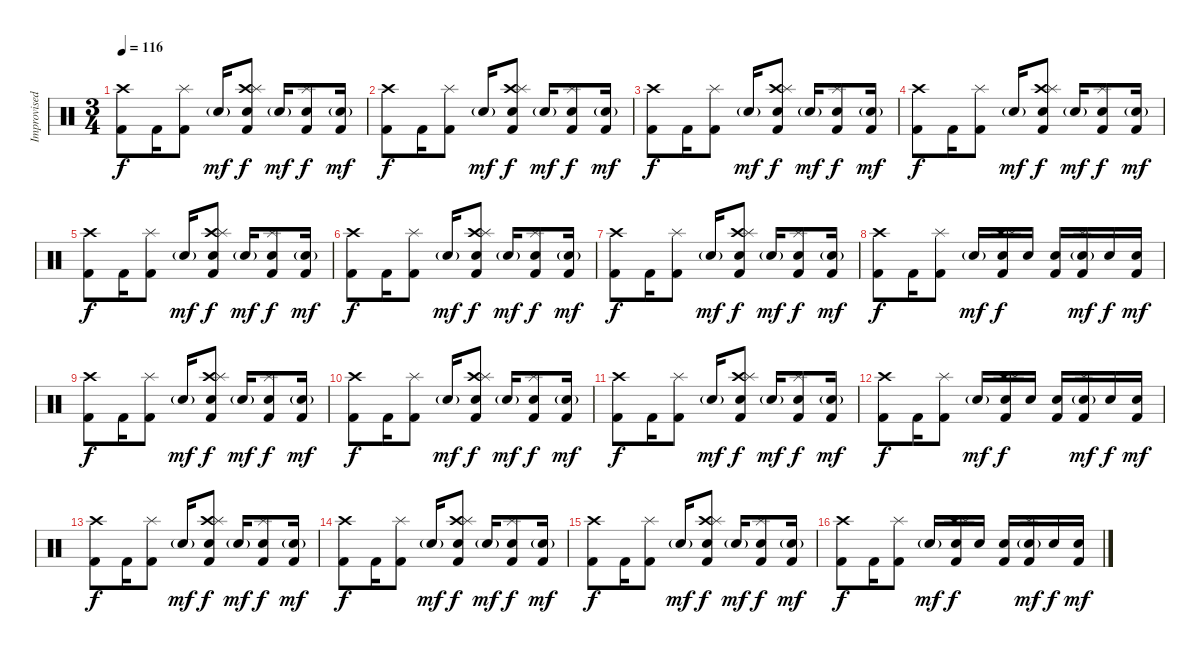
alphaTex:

\track ("Improvised Drums" "Improvised") {instrument percussion}
\staff {score}
\articulation defaults
\ts (3 4)
\tempo 116
\clef neutral
\ks c
("Kick (hit) 2" "Crash high (hit)").8{dy f} "Kick (hit) 2".16 ("Kick (hit) 2" "Splash (hit)").8 "Snare (hit) 2"{g}.16{dy mf} ("Kick (hit) 2" "Snare (hit) 2" "Crash high (hit)" "Splash (hit)").8{dy f} "Snare (hit) 2"{g}.16{dy mf} ("Kick (hit) 2" "Snare (hit) 2" "Splash (hit)").8{dy f} ("Kick (hit) 2" "Snare (hit) 2"{g}).16{dy mf} |
("Kick (hit) 2" "Crash high (hit)").8{dy f} "Kick (hit) 2".16 ("Kick (hit) 2" "Splash (hit)").8 "Snare (hit) 2"{g}.16{dy mf} ("Kick (hit) 2" "Snare (hit) 2" "Crash high (hit)" "Splash (hit)").8{dy f} "Snare (hit) 2"{g}.16{dy mf} ("Kick (hit) 2" "Snare (hit) 2" "Splash (hit)").8{dy f} ("Kick (hit) 2" "Snare (hit) 2"{g}).16{dy mf} |
("Kick (hit) 2" "Crash high (hit)").8{dy f} "Kick (hit) 2".16 ("Kick (hit) 2" "Splash (hit)").8 "Snare (hit) 2"{g}.16{dy mf} ("Kick (hit) 2" "Snare (hit) 2" "Crash high (hit)" "Splash (hit)").8{dy f} "Snare (hit) 2"{g}.16{dy mf} ("Kick (hit) 2" "Snare (hit) 2" "Splash (hit)").8{dy f} ("Kick (hit) 2" "Snare (hit) 2"{g}).16{dy mf} |
("Kick (hit) 2" "Crash high (hit)").8{dy f} "Kick (hit) 2".16 ("Kick (hit) 2" "Splash (hit)").8 "Snare (hit) 2"{g}.16{dy mf} ("Kick (hit) 2" "Snare (hit) 2" "Crash high (hit)" "Splash (hit)").8{dy f} "Snare (hit) 2"{g}.16{dy mf} ("Kick (hit) 2" "Snare (hit) 2" "Splash (hit)").8{dy f} ("Kick (hit) 2" "Snare (hit) 2"{g}).16{dy mf} |
("Kick (hit) 2" "Crash high (hit)").8{dy f} "Kick (hit) 2".16 ("Kick (hit) 2" "Splash (hit)").8 "Snare (hit) 2"{g}.16{dy mf} ("Kick (hit) 2" "Snare (hit) 2" "Crash high (hit)" "Splash (hit)").8{dy f} "Snare (hit) 2"{g}.16{dy mf} ("Kick (hit) 2" "Snare (hit) 2" "Splash (hit)").8{dy f} ("Kick (hit) 2" "Snare (hit) 2"{g}).16{dy mf} |
("Kick (hit) 2" "Crash high (hit)").8{dy f} "Kick (hit) 2".16 ("Kick (hit) 2" "Splash (hit)").8 "Snare (hit) 2"{g}.16{dy mf} ("Kick (hit) 2" "Snare (hit) 2" "Crash high (hit)" "Splash (hit)").8{dy f} "Snare (hit) 2"{g}.16{dy mf} ("Kick (hit) 2" "Snare (hit) 2" "Splash (hit)").8{dy f} ("Kick (hit) 2" "Snare (hit) 2"{g}).16{dy mf} |
("Kick (hit) 2" "Crash high (hit)").8{dy f} "Kick (hit) 2".16 ("Kick (hit) 2" "Splash (hit)").8 "Snare (hit) 2"{g}.16{dy mf} ("Kick (hit) 2" "Snare (hit) 2" "Crash high (hit)" "Splash (hit)").8{dy f} "Snare (hit) 2"{g}.16{dy mf} ("Kick (hit) 2" "Snare (hit) 2" "Splash (hit)").8{dy f} ("Kick (hit) 2" "Snare (hit) 2"{g}).16{dy mf} |
("Kick (hit) 2" "Crash high (hit)").8{dy f} "Kick (hit) 2".16 ("Kick (hit) 2" "Splash (hit)").8 "Snare (hit) 2"{g}.16{dy mf} ("Kick (hit) 2" "Snare (hit) 2" "Crash high (hit)" "Splash (hit)").16{dy f} "Snare (hit) 2".16 ("Kick (hit) 2" "Snare (hit) 2").16 ("Kick (hit) 2" "Snare (hit) 2"{g} "Splash (hit)").16{dy mf} "Snare (hit) 2".16{dy f} ("Kick (hit) 2" "Snare (hit) 2").16{dy mf} |
("Kick (hit) 2" "Crash high (hit)").8{dy f} "Kick (hit) 2".16 ("Kick (hit) 2" "Splash (hit)").8 "Snare (hit) 2"{g}.16{dy mf} ("Kick (hit) 2" "Snare (hit) 2" "Crash high (hit)" "Splash (hit)").8{dy f} "Snare (hit) 2"{g}.16{dy mf} ("Kick (hit) 2" "Snare (hit) 2" "Splash (hit)").8{dy f} ("Kick (hit) 2" "Snare (hit) 2"{g}).16{dy mf} |
("Kick (hit) 2" "Crash high (hit)").8{dy f} "Kick (hit) 2".16 ("Kick (hit) 2" "Splash (hit)").8 "Snare (hit) 2"{g}.16{dy mf} ("Kick (hit) 2" "Snare (hit) 2" "Crash high (hit)" "Splash (hit)").8{dy f} "Snare (hit) 2"{g}.16{dy mf} ("Kick (hit) 2" "Snare (hit) 2" "Splash (hit)").8{dy f} ("Kick (hit) 2" "Snare (hit) 2"{g}).16{dy mf} |
("Kick (hit) 2" "Crash high (hit)").8{dy f} "Kick (hit) 2".16 ("Kick (hit) 2" "Splash (hit)").8 "Snare (hit) 2"{g}.16{dy mf} ("Kick (hit) 2" "Snare (hit) 2" "Crash high (hit)" "Splash (hit)").8{dy f} "Snare (hit) 2"{g}.16{dy mf} ("Kick (hit) 2" "Snare (hit) 2" "Splash (hit)").8{dy f} ("Kick (hit) 2" "Snare (hit) 2"{g}).16{dy mf} |
("Kick (hit) 2" "Crash high (hit)").8{dy f} "Kick (hit) 2".16 ("Kick (hit) 2" "Splash (hit)").8 "Snare (hit) 2"{g}.16{dy mf} ("Kick (hit) 2" "Snare (hit) 2" "Crash high (hit)" "Splash (hit)").16{dy f} "Snare (hit) 2".16 ("Kick (hit) 2" "Snare (hit) 2").16 ("Kick (hit) 2" "Snare (hit) 2"{g} "Splash (hit)").16{dy mf} "Snare (hit) 2".16{dy f} ("Kick (hit) 2" "Snare (hit) 2").16{dy mf} |
("Kick (hit) 2" "Crash high (hit)").8{dy f} "Kick (hit) 2".16 ("Kick (hit) 2" "Splash (hit)").8 "Snare (hit) 2"{g}.16{dy mf} ("Kick (hit) 2" "Snare (hit) 2" "Crash high (hit)" "Splash (hit)").8{dy f} "Snare (hit) 2"{g}.16{dy mf} ("Kick (hit) 2" "Snare (hit) 2" "Splash (hit)").8{dy f} ("Kick (hit) 2" "Snare (hit) 2"{g}).16{dy mf} |
("Kick (hit) 2" "Crash high (hit)").8{dy f} "Kick (hit) 2".16 ("Kick (hit) 2" "Splash (hit)").8 "Snare (hit) 2"{g}.16{dy mf} ("Kick (hit) 2" "Snare (hit) 2" "Crash high (hit)" "Splash (hit)").8{dy f} "Snare (hit) 2"{g}.16{dy mf} ("Kick (hit) 2" "Snare (hit) 2" "Splash (hit)").8{dy f} ("Kick (hit) 2" "Snare (hit) 2"{g}).16{dy mf} |
("Kick (hit) 2" "Crash high (hit)").8{dy f} "Kick (hit) 2".16 ("Kick (hit) 2" "Splash (hit)").8 "Snare (hit) 2"{g}.16{dy mf} ("Kick (hit) 2" "Snare (hit) 2" "Crash high (hit)" "Splash (hit)").8{dy f} "Snare (hit) 2"{g}.16{dy mf} ("Kick (hit) 2" "Snare (hit) 2" "Splash (hit)").8{dy f} ("Kick (hit) 2" "Snare (hit) 2"{g}).16{dy mf} |
("Kick (hit) 2" "Crash high (hit)").8{dy f} "Kick (hit) 2".16 ("Kick (hit) 2" "Splash (hit)").8 "Snare (hit) 2"{g}.16{dy mf} ("Kick (hit) 2" "Snare (hit) 2" "Crash high (hit)" "Splash (hit)").16{dy f} "Snare (hit) 2".16 ("Kick (hit) 2" "Snare (hit) 2").16 ("Kick (hit) 2" "Snare (hit) 2"{g} "Splash (hit)").16{dy mf} "Snare (hit) 2".16{dy f} ("Kick (hit) 2" "Snare (hit) 2").16{dy mf}
